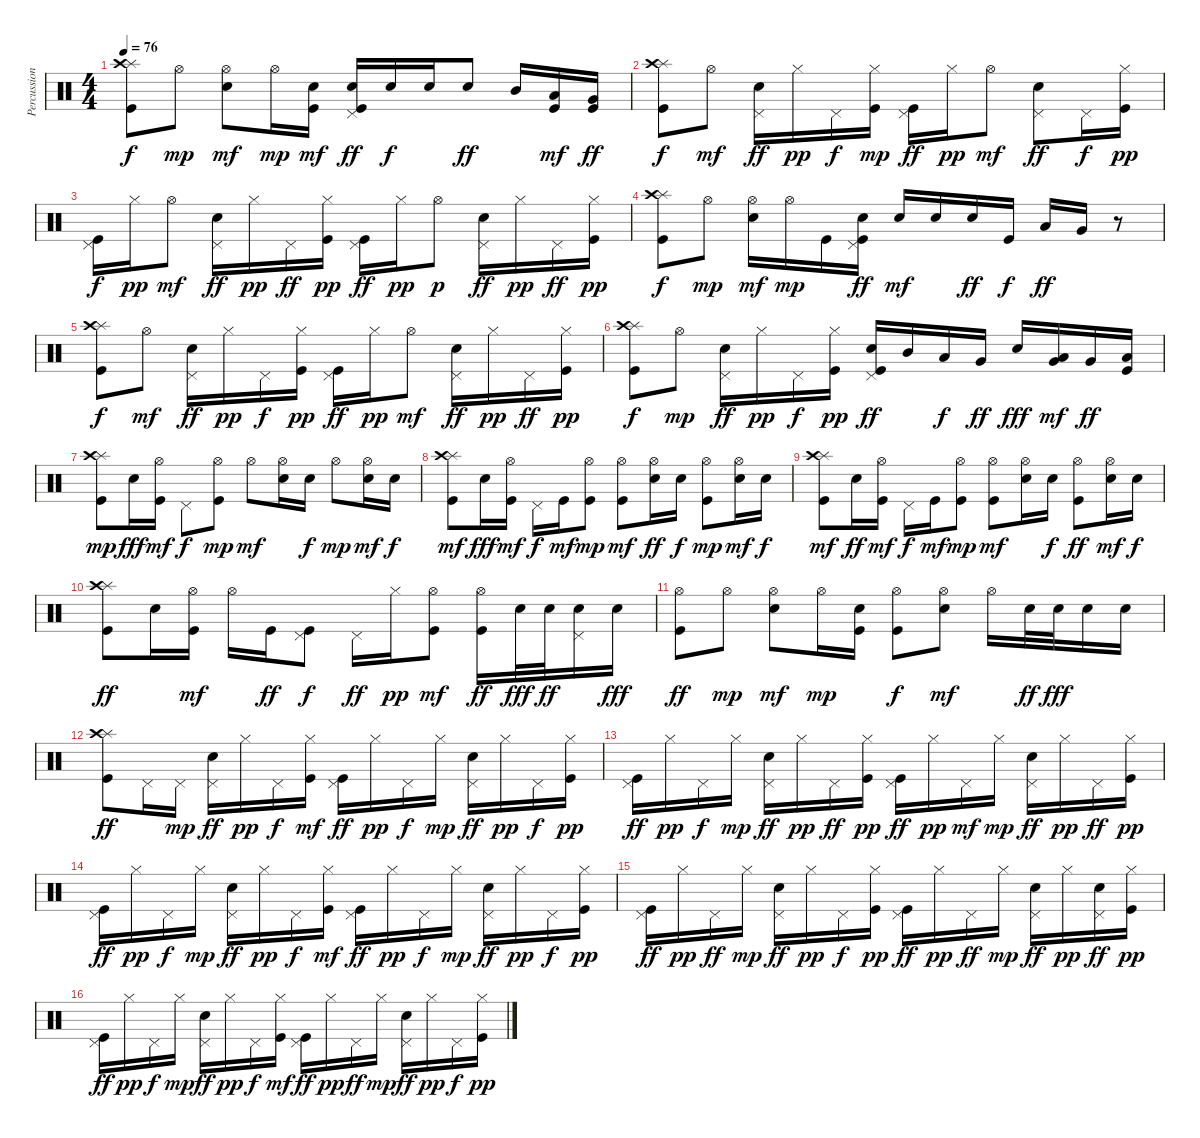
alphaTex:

\track ("Percussion" "Percussion") {instrument percussion}
\staff {score}
\articulation defaults
\ts (4 4)
\tempo 76
\clef neutral
\ks c
("Splash (hit)" "Crash high (hit)" "Kick (hit)").8{dy f} "Hi-Hat (open)".8{dy mp} ("Hi-Hat (open)" "Snare (hit) 2").8{dy mf} "Hi-Hat (open)".16{dy mp} ("Snare (hit) 2" "Kick (hit)").16{dy mf} ("Pedal Hi-Hat (hit)" "Snare (hit) 2" "Kick (hit)").16{dy ff} "Snare (hit) 2".16{dy f} "Snare (hit) 2".16 "Snare (hit) 2".8{dy ff} "Mid Tom (hit)".16 ("Low Tom (hit)" "Kick (hit)").16{dy mf} ("Very Low Tom (hit)" "Kick (hit)").16{dy ff} |
("Splash (hit)" "Crash high (hit)" "Kick (hit)").8{dy f} "Hi-Hat (open)".8{dy mf} ("Pedal Hi-Hat (hit)" "Snare (hit) 2").16{dy ff} "Hi-Hat (closed)".16{dy pp} "Pedal Hi-Hat (hit)".16{dy f} ("Hi-Hat (closed)" "Kick (hit)").16{dy mp} ("Pedal Hi-Hat (hit)" "Kick (hit)").16{dy ff} "Hi-Hat (closed)".16{dy pp} "Hi-Hat (open)".8{dy mf} ("Pedal Hi-Hat (hit)" "Snare (hit) 2").8{dy ff} "Pedal Hi-Hat (hit)".16{dy f} ("Hi-Hat (closed)" "Kick (hit)").16{dy pp} |
("Pedal Hi-Hat (hit)" "Kick (hit)").16{dy f} "Hi-Hat (closed)".16{dy pp} "Hi-Hat (open)".8{dy mf} ("Pedal Hi-Hat (hit)" "Snare (hit) 2").16{dy ff} "Hi-Hat (closed)".16{dy pp} "Pedal Hi-Hat (hit)".16{dy ff} ("Hi-Hat (closed)" "Kick (hit)").16{dy pp} ("Pedal Hi-Hat (hit)" "Kick (hit)").16{dy ff} "Hi-Hat (closed)".16{dy pp} "Hi-Hat (open)".8{dy p} ("Pedal Hi-Hat (hit)" "Snare (hit) 2").16{dy ff} "Hi-Hat (closed)".16{dy pp} "Pedal Hi-Hat (hit)".16{dy ff} ("Hi-Hat (closed)" "Kick (hit)").16{dy pp} |
("Splash (hit)" "Crash high (hit)" "Kick (hit)").8{dy f} "Hi-Hat (open)".8{dy mp} ("Hi-Hat (open)" "Snare (hit) 2").16{dy mf} "Hi-Hat (open)".16{dy mp} "Kick (hit)".16 ("Pedal Hi-Hat (hit)" "Snare (hit) 2" "Kick (hit)").16{dy ff} "Snare (hit) 2".16{dy mf} "Snare (hit) 2".16 "Snare (hit) 2".16{dy ff} "Kick (hit)".16{dy f} "Low Tom (hit)".16{dy ff} "Very Low Tom (hit)".16 r.8 |
("Splash (hit)" "Crash high (hit)" "Kick (hit)").8{dy f} "Hi-Hat (open)".8{dy mf} ("Pedal Hi-Hat (hit)" "Snare (hit) 2").16{dy ff} "Hi-Hat (closed)".16{dy pp} "Pedal Hi-Hat (hit)".16{dy f} ("Hi-Hat (closed)" "Kick (hit)").16{dy pp} ("Pedal Hi-Hat (hit)" "Kick (hit)").16{dy ff} "Hi-Hat (closed)".16{dy pp} "Hi-Hat (open)".8{dy mf} ("Pedal Hi-Hat (hit)" "Snare (hit) 2").16{dy ff} "Hi-Hat (closed)".16{dy pp} "Pedal Hi-Hat (hit)".16{dy ff} ("Hi-Hat (closed)" "Kick (hit)").16{dy pp} |
("Splash (hit)" "Crash high (hit)" "Kick (hit)").8{dy f} "Hi-Hat (open)".8{dy mp} ("Pedal Hi-Hat (hit)" "Snare (hit) 2").16{dy ff} "Hi-Hat (closed)".16{dy pp} "Pedal Hi-Hat (hit)".16{dy f} ("Hi-Hat (closed)" "Kick (hit)").16{dy pp} ("Pedal Hi-Hat (hit)" "Snare (hit) 2" "Kick (hit)").16{dy ff} "Mid Tom (hit)".16 "Low Tom (hit)".16{dy f} "Very Low Tom (hit)".16{dy ff} "Snare (hit) 2".16{dy fff} ("Low Tom (hit)" "Very Low Tom (hit)").16{dy mf} "Very Low Tom (hit)".16{dy ff} ("Low Floor Tom (hit)" "Kick (hit)").16 |
("Splash (hit)" "Crash high (hit)" "Kick (hit)").8{dy mp} "Snare (hit) 2".16{dy fff} ("Hi-Hat (open)" "Kick (hit)").16{dy mf} "Pedal Hi-Hat (hit)".8{dy f} ("Hi-Hat (open)" "Kick (hit)").8{dy mp} "Hi-Hat (open)".8{dy mf} ("Hi-Hat (open)" "Snare (hit) 2").16 "Snare (hit) 2".16{dy f} "Hi-Hat (open)".8{dy mp} ("Hi-Hat (open)" "Snare (hit) 2").16{dy mf} "Snare (hit) 2".16{dy f} |
("Splash (hit)" "Crash high (hit)" "Kick (hit)").8{dy mf} "Snare (hit) 2".16{dy fff} ("Hi-Hat (open)" "Kick (hit)").16{dy mf} "Pedal Hi-Hat (hit)".16{dy f} "Kick (hit)".16{dy mf} ("Hi-Hat (open)" "Kick (hit)").8{dy mp} ("Hi-Hat (open)" "Kick (hit)").8{dy mf} ("Hi-Hat (open)" "Snare (hit) 2").16{dy ff} "Snare (hit) 2".16{dy f} ("Hi-Hat (open)" "Kick (hit)").8{dy mp} ("Hi-Hat (open)" "Snare (hit) 2").16{dy mf} "Snare (hit) 2".16{dy f} |
("Splash (hit)" "Crash high (hit)" "Kick (hit)").8{dy mf} "Snare (hit) 2".16{dy ff} ("Hi-Hat (open)" "Kick (hit)").16{dy mf} "Pedal Hi-Hat (hit)".16{dy f} "Kick (hit)".16{dy mf} ("Hi-Hat (open)" "Kick (hit)").8{dy mp} ("Hi-Hat (open)" "Kick (hit)").8{dy mf} ("Hi-Hat (open)" "Snare (hit) 2").16 "Snare (hit) 2".16{dy f} ("Hi-Hat (open)" "Kick (hit)").8{dy ff} ("Hi-Hat (open)" "Snare (hit) 2").16{dy mf} "Snare (hit) 2".16{dy f} |
("Splash (hit)" "Crash high (hit)" "Kick (hit)").8{dy ff} "Snare (hit) 2".16 ("Hi-Hat (open)" "Kick (hit)").16{dy mf} "Hi-Hat (open)".16 "Kick (hit)".16{dy ff} ("Pedal Hi-Hat (hit)" "Kick (hit)").8{dy f} "Pedal Hi-Hat (hit)".16{dy ff} "Hi-Hat (closed)".16{dy pp} ("Hi-Hat (open)" "Kick (hit)").8{dy mf} ("Hi-Hat (open)" "Kick (hit)").16{dy ff} "Snare (hit) 2".32{dy fff} "Snare (hit) 2".32{dy ff} ("Pedal Hi-Hat (hit)" "Snare (hit) 2").16 "Snare (hit) 2".16{dy fff} |
("Hi-Hat (open)" "Kick (hit)").8{dy ff} "Hi-Hat (open)".8{dy mp} ("Hi-Hat (open)" "Snare (hit) 2").8{dy mf} "Hi-Hat (open)".16{dy mp} ("Snare (hit) 2" "Kick (hit)").16 ("Hi-Hat (open)" "Kick (hit)").8{dy f} ("Hi-Hat (open)" "Snare (hit) 2").8{dy mf} "Hi-Hat (open)".16 "Snare (hit) 2".32{dy ff} "Snare (hit) 2".32{dy fff} "Snare (hit) 2".16 "Snare (hit) 2".16 |
("Splash (hit)" "Crash high (hit)" "Kick (hit)").8{dy ff} "Pedal Hi-Hat (hit)".16 "Pedal Hi-Hat (hit)".16{dy mp} ("Pedal Hi-Hat (hit)" "Snare (hit) 2").16{dy ff} "Hi-Hat (closed)".16{dy pp} "Pedal Hi-Hat (hit)".16{dy f} ("Hi-Hat (closed)" "Kick (hit)").16{dy mf} ("Pedal Hi-Hat (hit)" "Kick (hit)").16{dy ff} "Hi-Hat (closed)".16{dy pp} "Pedal Hi-Hat (hit)".16{dy f} "Hi-Hat (closed)".16{dy mp} ("Pedal Hi-Hat (hit)" "Snare (hit) 2").16{dy ff} "Hi-Hat (closed)".16{dy pp} "Pedal Hi-Hat (hit)".16{dy f} ("Hi-Hat (closed)" "Kick (hit)").16{dy pp} |
("Pedal Hi-Hat (hit)" "Kick (hit)").16{dy ff} "Hi-Hat (closed)".16{dy pp} "Pedal Hi-Hat (hit)".16{dy f} "Hi-Hat (closed)".16{dy mp} ("Pedal Hi-Hat (hit)" "Snare (hit) 2").16{dy ff} "Hi-Hat (closed)".16{dy pp} "Pedal Hi-Hat (hit)".16{dy ff} ("Hi-Hat (closed)" "Kick (hit)").16{dy pp} ("Pedal Hi-Hat (hit)" "Kick (hit)").16{dy ff} "Hi-Hat (closed)".16{dy pp} "Pedal Hi-Hat (hit)".16{dy mf} "Hi-Hat (closed)".16{dy mp} ("Pedal Hi-Hat (hit)" "Snare (hit) 2").16{dy ff} "Hi-Hat (closed)".16{dy pp} "Pedal Hi-Hat (hit)".16{dy ff} ("Hi-Hat (closed)" "Kick (hit)").16{dy pp} |
("Pedal Hi-Hat (hit)" "Kick (hit)").16{dy ff} "Hi-Hat (closed)".16{dy pp} "Pedal Hi-Hat (hit)".16{dy f} "Hi-Hat (closed)".16{dy mp} ("Pedal Hi-Hat (hit)" "Snare (hit) 2").16{dy ff} "Hi-Hat (closed)".16{dy pp} "Pedal Hi-Hat (hit)".16{dy f} ("Hi-Hat (closed)" "Kick (hit)").16{dy mf} ("Pedal Hi-Hat (hit)" "Kick (hit)").16{dy ff} "Hi-Hat (closed)".16{dy pp} "Pedal Hi-Hat (hit)".16{dy f} "Hi-Hat (closed)".16{dy mp} ("Pedal Hi-Hat (hit)" "Snare (hit) 2").16{dy ff} "Hi-Hat (closed)".16{dy pp} "Pedal Hi-Hat (hit)".16{dy f} ("Hi-Hat (closed)" "Kick (hit)").16{dy pp} |
("Pedal Hi-Hat (hit)" "Kick (hit)").16{dy ff} "Hi-Hat (closed)".16{dy pp} "Pedal Hi-Hat (hit)".16{dy ff} "Hi-Hat (closed)".16{dy mp} ("Pedal Hi-Hat (hit)" "Snare (hit) 2").16{dy ff} "Hi-Hat (closed)".16{dy pp} "Pedal Hi-Hat (hit)".16{dy f} ("Hi-Hat (closed)" "Kick (hit)").16{dy pp} ("Pedal Hi-Hat (hit)" "Kick (hit)").16{dy ff} "Hi-Hat (closed)".16{dy pp} "Pedal Hi-Hat (hit)".16{dy ff} "Hi-Hat (closed)".16{dy mp} ("Pedal Hi-Hat (hit)" "Snare (hit) 2").16{dy ff} "Hi-Hat (closed)".16{dy pp} ("Pedal Hi-Hat (hit)" "Snare (hit) 2").16{dy ff} ("Hi-Hat (closed)" "Kick (hit)").16{dy pp} |
("Pedal Hi-Hat (hit)" "Kick (hit)").16{dy ff} "Hi-Hat (closed)".16{dy pp} "Pedal Hi-Hat (hit)".16{dy f} "Hi-Hat (closed)".16{dy mp} ("Pedal Hi-Hat (hit)" "Snare (hit) 2").16{dy ff} "Hi-Hat (closed)".16{dy pp} "Pedal Hi-Hat (hit)".16{dy f} ("Hi-Hat (closed)" "Kick (hit)").16{dy mf} ("Pedal Hi-Hat (hit)" "Kick (hit)").16{dy ff} "Hi-Hat (closed)".16{dy pp} "Pedal Hi-Hat (hit)".16{dy ff} "Hi-Hat (closed)".16{dy mp} ("Pedal Hi-Hat (hit)" "Snare (hit) 2").16{dy ff} "Hi-Hat (closed)".16{dy pp} "Pedal Hi-Hat (hit)".16{dy f} ("Hi-Hat (closed)" "Kick (hit)").16{dy pp}
